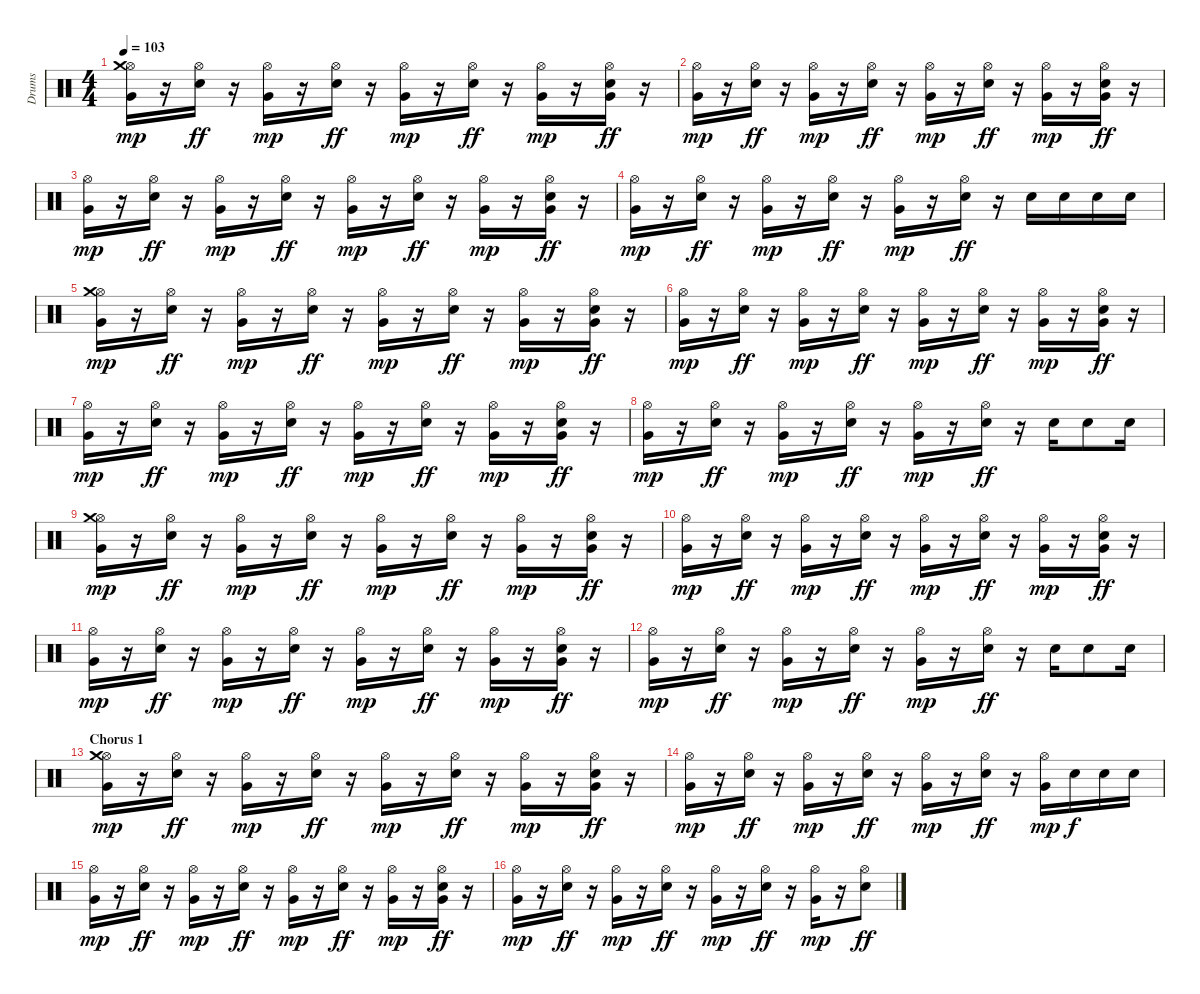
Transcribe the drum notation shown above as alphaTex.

\track ("Drums" "Drums") {instrument percussion}
\staff {score}
\articulation defaults
\ts (4 4)
\tempo 103
\clef neutral
\ks c
("Hi-Hat (open)" "Crash medium (hit)" "Very Low Tom (hit)").16{dy mp} r.16 ("Hi-Hat (open)" "Electric Snare (hit)").16{dy ff} r.16 ("Hi-Hat (open)" "Very Low Tom (hit)").16{dy mp} r.16 ("Hi-Hat (open)" "Electric Snare (hit)").16{dy ff} r.16 ("Hi-Hat (open)" "Very Low Tom (hit)").16{dy mp} r.16 ("Hi-Hat (open)" "Electric Snare (hit)").16{dy ff} r.16 ("Hi-Hat (open)" "Very Low Tom (hit)").16{dy mp} r.16 ("Hi-Hat (open)" "Electric Snare (hit)" "Very Low Tom (hit)").16{dy ff} r.16 |
("Hi-Hat (open)" "Very Low Tom (hit)").16{dy mp} r.16 ("Hi-Hat (open)" "Electric Snare (hit)").16{dy ff} r.16 ("Hi-Hat (open)" "Very Low Tom (hit)").16{dy mp} r.16 ("Hi-Hat (open)" "Electric Snare (hit)").16{dy ff} r.16 ("Hi-Hat (open)" "Very Low Tom (hit)").16{dy mp} r.16 ("Hi-Hat (open)" "Electric Snare (hit)").16{dy ff} r.16 ("Hi-Hat (open)" "Very Low Tom (hit)").16{dy mp} r.16 ("Hi-Hat (open)" "Electric Snare (hit)" "Very Low Tom (hit)").16{dy ff} r.16 |
("Hi-Hat (open)" "Very Low Tom (hit)").16{dy mp} r.16 ("Hi-Hat (open)" "Electric Snare (hit)").16{dy ff} r.16 ("Hi-Hat (open)" "Very Low Tom (hit)").16{dy mp} r.16 ("Hi-Hat (open)" "Electric Snare (hit)").16{dy ff} r.16 ("Hi-Hat (open)" "Very Low Tom (hit)").16{dy mp} r.16 ("Hi-Hat (open)" "Electric Snare (hit)").16{dy ff} r.16 ("Hi-Hat (open)" "Very Low Tom (hit)").16{dy mp} r.16 ("Hi-Hat (open)" "Electric Snare (hit)" "Very Low Tom (hit)").16{dy ff} r.16 |
("Hi-Hat (open)" "Very Low Tom (hit)").16{dy mp} r.16 ("Hi-Hat (open)" "Electric Snare (hit)").16{dy ff} r.16 ("Hi-Hat (open)" "Very Low Tom (hit)").16{dy mp} r.16 ("Hi-Hat (open)" "Electric Snare (hit)").16{dy ff} r.16 ("Hi-Hat (open)" "Very Low Tom (hit)").16{dy mp} r.16 ("Hi-Hat (open)" "Electric Snare (hit)").16{dy ff} r.16 "Electric Snare (hit)".16 "Electric Snare (hit)".16 "Electric Snare (hit)".16 "Electric Snare (hit)".16 |
("Hi-Hat (open)" "Crash medium (hit)" "Very Low Tom (hit)").16{dy mp} r.16 ("Hi-Hat (open)" "Electric Snare (hit)").16{dy ff} r.16 ("Hi-Hat (open)" "Very Low Tom (hit)").16{dy mp} r.16 ("Hi-Hat (open)" "Electric Snare (hit)").16{dy ff} r.16 ("Hi-Hat (open)" "Very Low Tom (hit)").16{dy mp} r.16 ("Hi-Hat (open)" "Electric Snare (hit)").16{dy ff} r.16 ("Hi-Hat (open)" "Very Low Tom (hit)").16{dy mp} r.16 ("Hi-Hat (open)" "Electric Snare (hit)" "Very Low Tom (hit)").16{dy ff} r.16 |
("Hi-Hat (open)" "Very Low Tom (hit)").16{dy mp} r.16 ("Hi-Hat (open)" "Electric Snare (hit)").16{dy ff} r.16 ("Hi-Hat (open)" "Very Low Tom (hit)").16{dy mp} r.16 ("Hi-Hat (open)" "Electric Snare (hit)").16{dy ff} r.16 ("Hi-Hat (open)" "Very Low Tom (hit)").16{dy mp} r.16 ("Hi-Hat (open)" "Electric Snare (hit)").16{dy ff} r.16 ("Hi-Hat (open)" "Very Low Tom (hit)").16{dy mp} r.16 ("Hi-Hat (open)" "Electric Snare (hit)" "Very Low Tom (hit)").16{dy ff} r.16 |
("Hi-Hat (open)" "Very Low Tom (hit)").16{dy mp} r.16 ("Hi-Hat (open)" "Electric Snare (hit)").16{dy ff} r.16 ("Hi-Hat (open)" "Very Low Tom (hit)").16{dy mp} r.16 ("Hi-Hat (open)" "Electric Snare (hit)").16{dy ff} r.16 ("Hi-Hat (open)" "Very Low Tom (hit)").16{dy mp} r.16 ("Hi-Hat (open)" "Electric Snare (hit)").16{dy ff} r.16 ("Hi-Hat (open)" "Very Low Tom (hit)").16{dy mp} r.16 ("Hi-Hat (open)" "Electric Snare (hit)" "Very Low Tom (hit)").16{dy ff} r.16 |
("Hi-Hat (open)" "Very Low Tom (hit)").16{dy mp} r.16 ("Hi-Hat (open)" "Electric Snare (hit)").16{dy ff} r.16 ("Hi-Hat (open)" "Very Low Tom (hit)").16{dy mp} r.16 ("Hi-Hat (open)" "Electric Snare (hit)").16{dy ff} r.16 ("Hi-Hat (open)" "Very Low Tom (hit)").16{dy mp} r.16 ("Hi-Hat (open)" "Electric Snare (hit)").16{dy ff} r.16 "Electric Snare (hit)".16 "Electric Snare (hit)".8 "Electric Snare (hit)".16 |
("Hi-Hat (open)" "Crash medium (hit)" "Very Low Tom (hit)").16{dy mp} r.16 ("Hi-Hat (open)" "Electric Snare (hit)").16{dy ff} r.16 ("Hi-Hat (open)" "Very Low Tom (hit)").16{dy mp} r.16 ("Hi-Hat (open)" "Electric Snare (hit)").16{dy ff} r.16 ("Hi-Hat (open)" "Very Low Tom (hit)").16{dy mp} r.16 ("Hi-Hat (open)" "Electric Snare (hit)").16{dy ff} r.16 ("Hi-Hat (open)" "Very Low Tom (hit)").16{dy mp} r.16 ("Hi-Hat (open)" "Electric Snare (hit)" "Very Low Tom (hit)").16{dy ff} r.16 |
("Hi-Hat (open)" "Very Low Tom (hit)").16{dy mp} r.16 ("Hi-Hat (open)" "Electric Snare (hit)").16{dy ff} r.16 ("Hi-Hat (open)" "Very Low Tom (hit)").16{dy mp} r.16 ("Hi-Hat (open)" "Electric Snare (hit)").16{dy ff} r.16 ("Hi-Hat (open)" "Very Low Tom (hit)").16{dy mp} r.16 ("Hi-Hat (open)" "Electric Snare (hit)").16{dy ff} r.16 ("Hi-Hat (open)" "Very Low Tom (hit)").16{dy mp} r.16 ("Hi-Hat (open)" "Electric Snare (hit)" "Very Low Tom (hit)").16{dy ff} r.16 |
("Hi-Hat (open)" "Very Low Tom (hit)").16{dy mp} r.16 ("Hi-Hat (open)" "Electric Snare (hit)").16{dy ff} r.16 ("Hi-Hat (open)" "Very Low Tom (hit)").16{dy mp} r.16 ("Hi-Hat (open)" "Electric Snare (hit)").16{dy ff} r.16 ("Hi-Hat (open)" "Very Low Tom (hit)").16{dy mp} r.16 ("Hi-Hat (open)" "Electric Snare (hit)").16{dy ff} r.16 ("Hi-Hat (open)" "Very Low Tom (hit)").16{dy mp} r.16 ("Hi-Hat (open)" "Electric Snare (hit)" "Very Low Tom (hit)").16{dy ff} r.16 |
("Hi-Hat (open)" "Very Low Tom (hit)").16{dy mp} r.16 ("Hi-Hat (open)" "Electric Snare (hit)").16{dy ff} r.16 ("Hi-Hat (open)" "Very Low Tom (hit)").16{dy mp} r.16 ("Hi-Hat (open)" "Electric Snare (hit)").16{dy ff} r.16 ("Hi-Hat (open)" "Very Low Tom (hit)").16{dy mp} r.16 ("Hi-Hat (open)" "Electric Snare (hit)").16{dy ff} r.16 "Electric Snare (hit)".16 "Electric Snare (hit)".8 "Electric Snare (hit)".16 |
\section ("" "Chorus 1")
("Hi-Hat (open)" "Crash medium (hit)" "Very Low Tom (hit)").16{dy mp} r.16 ("Hi-Hat (open)" "Electric Snare (hit)").16{dy ff} r.16 ("Hi-Hat (open)" "Very Low Tom (hit)").16{dy mp} r.16 ("Hi-Hat (open)" "Electric Snare (hit)").16{dy ff} r.16 ("Hi-Hat (open)" "Very Low Tom (hit)").16{dy mp} r.16 ("Hi-Hat (open)" "Electric Snare (hit)").16{dy ff} r.16 ("Hi-Hat (open)" "Very Low Tom (hit)").16{dy mp} r.16 ("Hi-Hat (open)" "Electric Snare (hit)" "Very Low Tom (hit)").16{dy ff} r.16 |
("Hi-Hat (open)" "Very Low Tom (hit)").16{dy mp} r.16 ("Hi-Hat (open)" "Electric Snare (hit)").16{dy ff} r.16 ("Hi-Hat (open)" "Very Low Tom (hit)").16{dy mp} r.16 ("Hi-Hat (open)" "Electric Snare (hit)").16{dy ff} r.16 ("Hi-Hat (open)" "Very Low Tom (hit)").16{dy mp} r.16 ("Hi-Hat (open)" "Electric Snare (hit)").16{dy ff} r.16 ("Hi-Hat (open)" "Very Low Tom (hit)").16{dy mp} "Electric Snare (hit)".16{dy f} "Electric Snare (hit)".16 "Electric Snare (hit)".16 |
("Hi-Hat (open)" "Very Low Tom (hit)").16{dy mp} r.16 ("Hi-Hat (open)" "Electric Snare (hit)").16{dy ff} r.16 ("Hi-Hat (open)" "Very Low Tom (hit)").16{dy mp} r.16 ("Hi-Hat (open)" "Electric Snare (hit)").16{dy ff} r.16 ("Hi-Hat (open)" "Very Low Tom (hit)").16{dy mp} r.16 ("Hi-Hat (open)" "Electric Snare (hit)").16{dy ff} r.16 ("Hi-Hat (open)" "Very Low Tom (hit)").16{dy mp} r.16 ("Hi-Hat (open)" "Electric Snare (hit)" "Very Low Tom (hit)").16{dy ff} r.16 |
("Hi-Hat (open)" "Very Low Tom (hit)").16{dy mp} r.16 ("Hi-Hat (open)" "Electric Snare (hit)").16{dy ff} r.16 ("Hi-Hat (open)" "Very Low Tom (hit)").16{dy mp} r.16 ("Hi-Hat (open)" "Electric Snare (hit)").16{dy ff} r.16 ("Hi-Hat (open)" "Very Low Tom (hit)").16{dy mp} r.16 ("Hi-Hat (open)" "Electric Snare (hit)").16{dy ff} r.16 ("Hi-Hat (open)" "Very Low Tom (hit)").16{dy mp} r.16 ("Hi-Hat (open)" "Electric Snare (hit)").8{dy ff}
